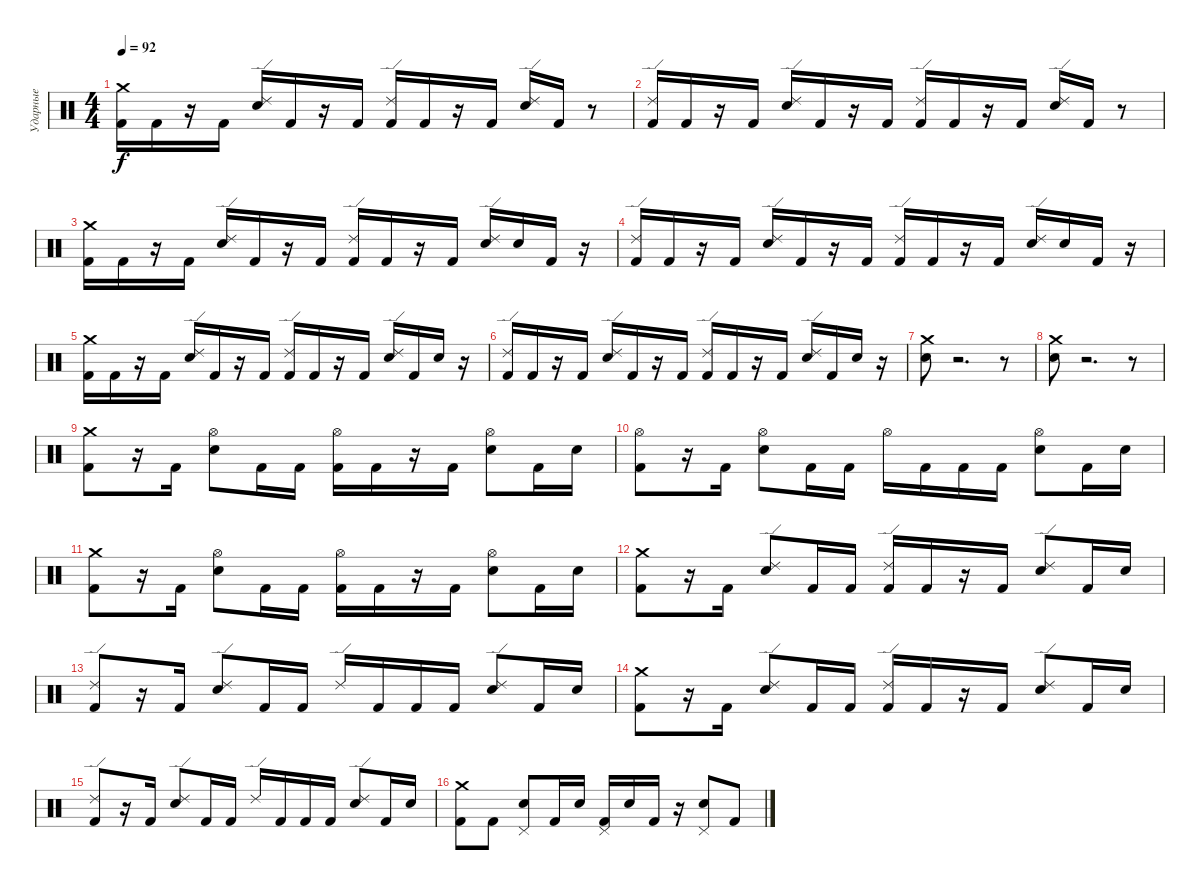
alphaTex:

\track ("Ударные" "Ударные") {instrument percussion}
\staff {score}
\articulation defaults
\ts (4 4)
\tempo 92
\clef neutral
\ks c
("Crash medium (hit)" "Kick (hit) 2").16{dy f} "Kick (hit) 2".16 r.16 "Kick (hit) 2".16 ("Ride (edge) 2" "Electric Snare (hit)").16 "Kick (hit) 2".16 r.16 "Kick (hit) 2".16 ("Ride (edge) 2" "Kick (hit) 2").16 "Kick (hit) 2".16 r.16 "Kick (hit) 2".16 ("Ride (edge) 2" "Electric Snare (hit)").16 "Kick (hit) 2".16 r.8 |
("Ride (edge) 2" "Kick (hit) 2").16 "Kick (hit) 2".16 r.16 "Kick (hit) 2".16 ("Ride (edge) 2" "Electric Snare (hit)").16 "Kick (hit) 2".16 r.16 "Kick (hit) 2".16 ("Ride (edge) 2" "Kick (hit) 2").16 "Kick (hit) 2".16 r.16 "Kick (hit) 2".16 ("Ride (edge) 2" "Electric Snare (hit)").16 "Kick (hit) 2".16 r.8 |
("Crash medium (hit)" "Kick (hit) 2").16 "Kick (hit) 2".16 r.16 "Kick (hit) 2".16 ("Ride (edge) 2" "Electric Snare (hit)").16 "Kick (hit) 2".16 r.16 "Kick (hit) 2".16 ("Ride (edge) 2" "Kick (hit) 2").16 "Kick (hit) 2".16 r.16 "Kick (hit) 2".16 ("Ride (edge) 2" "Electric Snare (hit)").16 "Electric Snare (hit)".16 "Kick (hit) 2".16 r.16 |
("Ride (edge) 2" "Kick (hit) 2").16 "Kick (hit) 2".16 r.16 "Kick (hit) 2".16 ("Ride (edge) 2" "Electric Snare (hit)").16 "Kick (hit) 2".16 r.16 "Kick (hit) 2".16 ("Ride (edge) 2" "Kick (hit) 2").16 "Kick (hit) 2".16 r.16 "Kick (hit) 2".16 ("Ride (edge) 2" "Electric Snare (hit)").16 "Electric Snare (hit)".16 "Kick (hit) 2".16 r.16 |
("Crash medium (hit)" "Kick (hit) 2").16 "Kick (hit) 2".16 r.16 "Kick (hit) 2".16 ("Ride (edge) 2" "Electric Snare (hit)").16 "Kick (hit) 2".16 r.16 "Kick (hit) 2".16 ("Ride (edge) 2" "Kick (hit) 2").16 "Kick (hit) 2".16 r.16 "Kick (hit) 2".16 ("Ride (edge) 2" "Electric Snare (hit)").16 "Kick (hit) 2".16 "Electric Snare (hit)".16 r.16 |
("Ride (edge) 2" "Kick (hit) 2").16 "Kick (hit) 2".16 r.16 "Kick (hit) 2".16 ("Ride (edge) 2" "Electric Snare (hit)").16 "Kick (hit) 2".16 r.16 "Kick (hit) 2".16 ("Ride (edge) 2" "Kick (hit) 2").16 "Kick (hit) 2".16 r.16 "Kick (hit) 2".16 ("Ride (edge) 2" "Electric Snare (hit)").16 "Kick (hit) 2".16 "Electric Snare (hit)".16 r.16 |
("Crash medium (hit)" "Electric Snare (hit)").8 r.2{d} r.8 |
("Crash medium (hit)" "Electric Snare (hit)").8 r.2{d} r.8 |
("Crash medium (hit)" "Kick (hit) 2").8 r.16 "Kick (hit) 2".16 ("Hi-Hat (open)" "Electric Snare (hit)").8 "Kick (hit) 2".16 "Kick (hit) 2".16 ("Hi-Hat (open)" "Kick (hit) 2").16 "Kick (hit) 2".16 r.16 "Kick (hit) 2".16 ("Hi-Hat (open)" "Electric Snare (hit)").8 "Kick (hit) 2".16 "Electric Snare (hit)".16 |
("Hi-Hat (open)" "Kick (hit) 2").8 r.16 "Kick (hit) 2".16 ("Hi-Hat (open)" "Electric Snare (hit)").8 "Kick (hit) 2".16 "Kick (hit) 2".16 "Hi-Hat (open)".16 "Kick (hit) 2".16 "Kick (hit) 2".16 "Kick (hit) 2".16 ("Hi-Hat (open)" "Electric Snare (hit)").8 "Kick (hit) 2".16 "Electric Snare (hit)".16 |
("Crash medium (hit)" "Kick (hit) 2").8 r.16 "Kick (hit) 2".16 ("Hi-Hat (open)" "Electric Snare (hit)").8 "Kick (hit) 2".16 "Kick (hit) 2".16 ("Hi-Hat (open)" "Kick (hit) 2").16 "Kick (hit) 2".16 r.16 "Kick (hit) 2".16 ("Hi-Hat (open)" "Electric Snare (hit)").8 "Kick (hit) 2".16 "Electric Snare (hit)".16 |
("Crash medium (hit)" "Kick (hit) 2").8 r.16 "Kick (hit) 2".16 ("Ride (edge) 2" "Electric Snare (hit)").8 "Kick (hit) 2".16 "Kick (hit) 2".16 ("Ride (edge) 2" "Kick (hit) 2").16 "Kick (hit) 2".16 r.16 "Kick (hit) 2".16 ("Ride (edge) 2" "Electric Snare (hit)").8 "Kick (hit) 2".16 "Electric Snare (hit)".16 |
("Ride (edge) 2" "Kick (hit) 2").8 r.16 "Kick (hit) 2".16 ("Ride (edge) 2" "Electric Snare (hit)").8 "Kick (hit) 2".16 "Kick (hit) 2".16 "Ride (edge) 2".16 "Kick (hit) 2".16 "Kick (hit) 2".16 "Kick (hit) 2".16 ("Ride (edge) 2" "Electric Snare (hit)").8 "Kick (hit) 2".16 "Electric Snare (hit)".16 |
("Crash medium (hit)" "Kick (hit) 2").8 r.16 "Kick (hit) 2".16 ("Ride (edge) 2" "Electric Snare (hit)").8 "Kick (hit) 2".16 "Kick (hit) 2".16 ("Ride (edge) 2" "Kick (hit) 2").16 "Kick (hit) 2".16 r.16 "Kick (hit) 2".16 ("Ride (edge) 2" "Electric Snare (hit)").8 "Kick (hit) 2".16 "Electric Snare (hit)".16 |
("Ride (edge) 2" "Kick (hit) 2").8 r.16 "Kick (hit) 2".16 ("Ride (edge) 2" "Electric Snare (hit)").8 "Kick (hit) 2".16 "Kick (hit) 2".16 "Ride (edge) 2".16 "Kick (hit) 2".16 "Kick (hit) 2".16 "Kick (hit) 2".16 ("Ride (edge) 2" "Electric Snare (hit)").8 "Kick (hit) 2".16 "Electric Snare (hit)".16 |
("Crash medium (hit)" "Kick (hit) 2").8 "Kick (hit) 2".8 ("Pedal Hi-Hat (hit)" "Electric Snare (hit)").8 "Kick (hit) 2".16 "Electric Snare (hit)".16 ("Pedal Hi-Hat (hit)" "Kick (hit) 2").16 "Electric Snare (hit)".16 "Kick (hit) 2".16 r.16 ("Pedal Hi-Hat (hit)" "Electric Snare (hit)").8 "Kick (hit) 2".8
